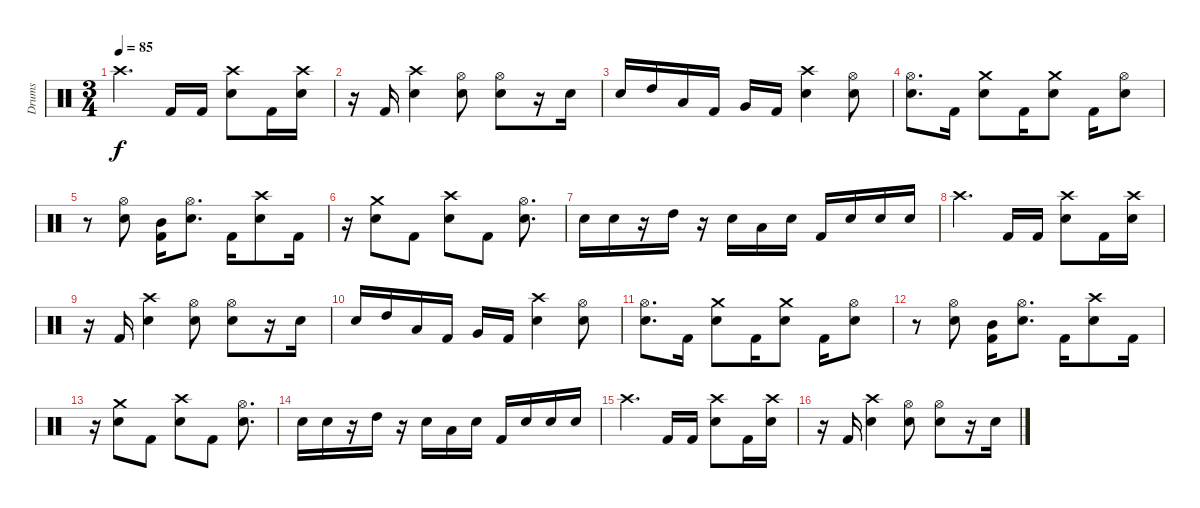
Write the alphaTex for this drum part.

\track ("Drums" "Drums") {instrument percussion}
\staff {score}
\articulation defaults
\ts (3 4)
\tempo 85
\clef neutral
\ks c "Crash high (hit)".4{d dy f} "Kick (hit) 2".16 "Kick (hit) 2".16
("Crash high (hit)" "Electric Snare (hit)").8 "Kick (hit) 2".16 ("Crash high (hit)" "Electric Snare (hit)").16 |
r.16 "Kick (hit) 2".16 ("Crash high (hit)" "Electric Snare (hit)").4 ("Hi-Hat (open)" "Electric Snare (hit)").8 ("Hi-Hat (open)" "Electric Snare (hit)").8 r.16 "Electric Snare (hit)".16 |
"Electric Snare (hit)".16 "High Tom (hit)".16 "Low Tom (hit)".16 "Kick (hit) 2".16 "Very Low Tom (hit)".16 "Kick (hit) 2".16 ("Crash high (hit)" "Electric Snare (hit)").4 ("Hi-Hat (open)" "Electric Snare (hit)").8 |
("Hi-Hat (open)" "Electric Snare (hit)").8{d} "Kick (hit) 2".16 ("Crash medium (hit)" "Electric Snare (hit)").8 "Kick (hit) 2".16 ("Crash medium (hit)" "Electric Snare (hit)").8 "Kick (hit) 2".16 ("Hi-Hat (open)" "Electric Snare (hit)").8 |
r.8 ("Hi-Hat (open)" "Electric Snare (hit)").8 ("Mid Tom (hit)" "Kick (hit) 2").16 ("Hi-Hat (open)" "Electric Snare (hit)").8{d} "Kick (hit) 2".16 ("Crash high (hit)" "Electric Snare (hit)").8 "Kick (hit) 2".16 |
r.16 ("Crash medium (hit)" "Electric Snare (hit)").8 "Kick (hit) 2".8 ("Crash high (hit)" "Electric Snare (hit)").8 "Kick (hit) 2".8 ("Hi-Hat (open)" "Electric Snare (hit)").8{d} |
"Electric Snare (hit)".16 "Electric Snare (hit)".16 r.16 "High Tom (hit)".16 r.16 "Electric Snare (hit)".16 "Low Tom (hit)".16 "Electric Snare (hit)".16 "Kick (hit) 2".16 "Electric Snare (hit)".16 "Electric Snare (hit)".16 "Electric Snare (hit)".16 |
"Crash high (hit)".4{d} "Kick (hit) 2".16 "Kick (hit) 2".16 ("Crash high (hit)" "Electric Snare (hit)").8 "Kick (hit) 2".16 ("Crash high (hit)" "Electric Snare (hit)").16 |
r.16 "Kick (hit) 2".16 ("Crash high (hit)" "Electric Snare (hit)").4 ("Hi-Hat (open)" "Electric Snare (hit)").8 ("Hi-Hat (open)" "Electric Snare (hit)").8 r.16 "Electric Snare (hit)".16 |
"Electric Snare (hit)".16 "High Tom (hit)".16 "Low Tom (hit)".16 "Kick (hit) 2".16 "Very Low Tom (hit)".16 "Kick (hit) 2".16 ("Crash high (hit)" "Electric Snare (hit)").4 ("Hi-Hat (open)" "Electric Snare (hit)").8 |
("Hi-Hat (open)" "Electric Snare (hit)").8{d} "Kick (hit) 2".16 ("Crash medium (hit)" "Electric Snare (hit)").8 "Kick (hit) 2".16 ("Crash medium (hit)" "Electric Snare (hit)").8 "Kick (hit) 2".16 ("Hi-Hat (open)" "Electric Snare (hit)").8 |
r.8 ("Hi-Hat (open)" "Electric Snare (hit)").8 ("Mid Tom (hit)" "Kick (hit) 2").16 ("Hi-Hat (open)" "Electric Snare (hit)").8{d} "Kick (hit) 2".16 ("Crash high (hit)" "Electric Snare (hit)").8 "Kick (hit) 2".16 |
r.16 ("Crash medium (hit)" "Electric Snare (hit)").8 "Kick (hit) 2".8 ("Crash high (hit)" "Electric Snare (hit)").8 "Kick (hit) 2".8 ("Hi-Hat (open)" "Electric Snare (hit)").8{d} |
"Electric Snare (hit)".16 "Electric Snare (hit)".16 r.16 "High Tom (hit)".16 r.16 "Electric Snare (hit)".16 "Low Tom (hit)".16 "Electric Snare (hit)".16 "Kick (hit) 2".16 "Electric Snare (hit)".16 "Electric Snare (hit)".16 "Electric Snare (hit)".16 |
"Crash high (hit)".4{d} "Kick (hit) 2".16 "Kick (hit) 2".16 ("Crash high (hit)" "Electric Snare (hit)").8 "Kick (hit) 2".16 ("Crash high (hit)" "Electric Snare (hit)").16 |
r.16 "Kick (hit) 2".16 ("Crash high (hit)" "Electric Snare (hit)").4 ("Hi-Hat (open)" "Electric Snare (hit)").8 ("Hi-Hat (open)" "Electric Snare (hit)").8 r.16 "Electric Snare (hit)".16
